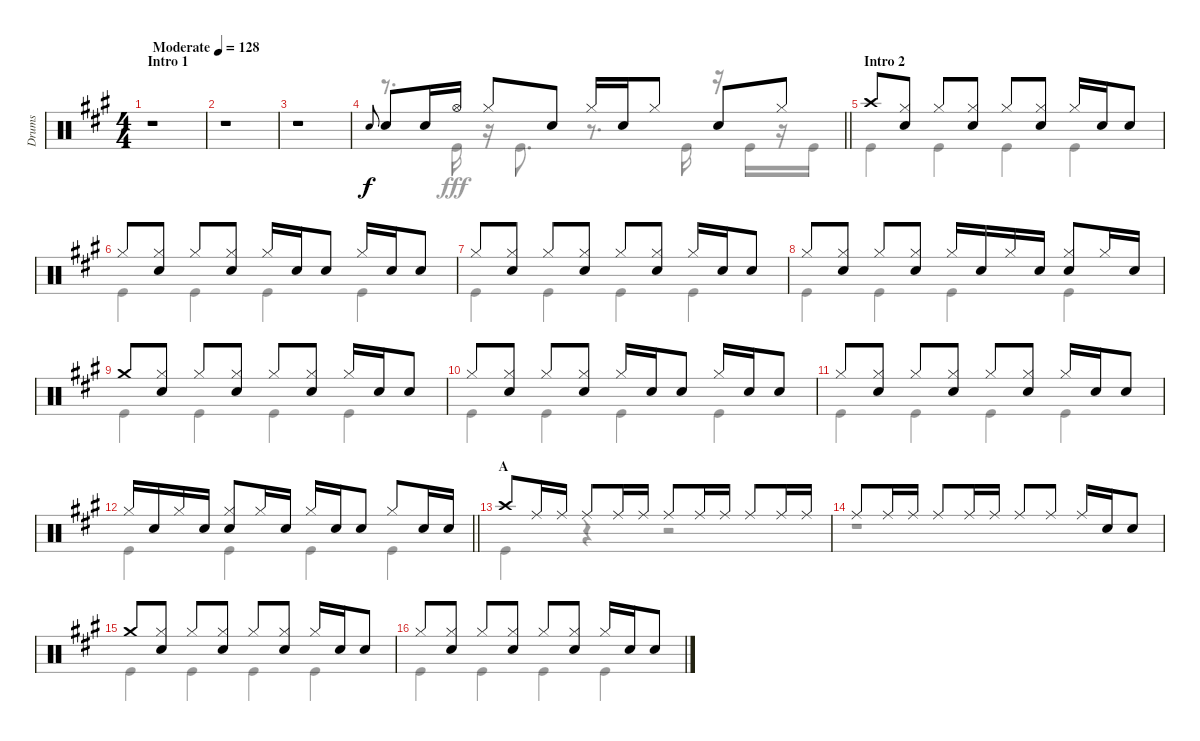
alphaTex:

\track ("Drums" "Drums") {instrument percussion}
\staff {score}
\articulation defaults
\voice
\ts (4 4)
\section ("" "Intro 1")
\tempo (128 "Moderate")
\clef neutral
\ks a
r.1{dy f} |
r.1 |
r.1 |
\barLineRight lightlight "Snare (hit) 2".8{gr onbeat} "Snare (hit) 2".8 "Snare (hit) 2".16 "Hi-Hat (open)".16 "Hi-Hat (closed)".8 "Snare (hit) 2".8 "Hi-Hat (closed)".16 "Snare (hit) 2".16 "Hi-Hat (closed)".8 "Snare (hit) 2".8 "Hi-Hat (closed)".8
|
\section ("" "Intro 2")
"Crash high (hit)".8 ("Hi-Hat (closed)" "Snare (hit) 2").8 "Hi-Hat (closed)".8 ("Hi-Hat (closed)" "Snare (hit) 2").8 "Hi-Hat (closed)".8 ("Hi-Hat (closed)" "Snare (hit) 2").8 "Hi-Hat (closed)".16 "Snare (hit) 2".16 "Snare (hit) 2".8 |
"Hi-Hat (closed)".8 ("Hi-Hat (closed)" "Snare (hit) 2").8 "Hi-Hat (closed)".8 ("Hi-Hat (closed)" "Snare (hit) 2").8 "Hi-Hat (closed)".16 "Snare (hit) 2".16 "Snare (hit) 2".8 "Hi-Hat (closed)".16 "Snare (hit) 2".16 "Snare (hit) 2".8 |
"Hi-Hat (closed)".8 ("Hi-Hat (closed)" "Snare (hit) 2").8 "Hi-Hat (closed)".8 ("Hi-Hat (closed)" "Snare (hit) 2").8 "Hi-Hat (closed)".8 ("Hi-Hat (closed)" "Snare (hit) 2").8 "Hi-Hat (closed)".16 "Snare (hit) 2".16 "Snare (hit) 2".8 |
"Hi-Hat (closed)".8 ("Hi-Hat (closed)" "Snare (hit) 2").8 "Hi-Hat (closed)".8 ("Hi-Hat (closed)" "Snare (hit) 2").8 "Hi-Hat (closed)".16 "Snare (hit) 2".16 "Hi-Hat (closed)".16 "Snare (hit) 2".16 ("Hi-Hat (closed)" "Snare (hit) 2").8 "Hi-Hat (closed)".16 "Snare (hit) 2".16 |
"Crash medium (hit)".8 ("Hi-Hat (closed)" "Snare (hit) 2").8 "Hi-Hat (closed)".8 ("Hi-Hat (closed)" "Snare (hit) 2").8 "Hi-Hat (closed)".8 ("Hi-Hat (closed)" "Snare (hit) 2").8 "Hi-Hat (closed)".16 "Snare (hit) 2".16 "Snare (hit) 2".8 |
"Hi-Hat (closed)".8 ("Hi-Hat (closed)" "Snare (hit) 2").8 "Hi-Hat (closed)".8 ("Hi-Hat (closed)" "Snare (hit) 2").8 "Hi-Hat (closed)".16 "Snare (hit) 2".16 "Snare (hit) 2".8 "Hi-Hat (closed)".16 "Snare (hit) 2".16 "Snare (hit) 2".8 |
"Hi-Hat (closed)".8 ("Hi-Hat (closed)" "Snare (hit) 2").8 "Hi-Hat (closed)".8 ("Hi-Hat (closed)" "Snare (hit) 2").8 "Hi-Hat (closed)".8 ("Hi-Hat (closed)" "Snare (hit) 2").8 "Hi-Hat (closed)".16 "Snare (hit) 2".16 "Snare (hit) 2".8 |
\barLineRight lightlight "Hi-Hat (closed)".16 "Snare (hit) 2".16 "Hi-Hat (closed)".16 "Snare (hit) 2".16
("Hi-Hat (closed)" "Snare (hit) 2").8 "Hi-Hat (closed)".16 "Snare (hit) 2".16 "Hi-Hat (closed)".16 "Snare (hit) 2".16 "Snare (hit) 2".8 "Hi-Hat (closed)".8 "Snare (hit) 2".16 "Snare (hit) 2".16 |
\section ("" "A")
"Crash high (hit)".8 "Ride (middle)".16 "Ride (middle)".16 "Ride (middle)".8 "Ride (middle)".16 "Ride (middle)".16 "Ride (middle)".8 "Ride (middle)".16 "Ride (middle)".16 "Ride (middle)".8 "Ride (middle)".16 "Ride (middle)".16 |
"Ride (middle)".8 "Ride (middle)".16 "Ride (middle)".16 "Ride (middle)".8 "Ride (middle)".16 "Ride (middle)".16 "Ride (middle)".8 "Ride (middle)".8 "Ride (middle)".16 "Snare (hit) 2".16 "Snare (hit) 2".8 |
"Crash medium (hit)".8 ("Hi-Hat (closed)" "Snare (hit) 2").8 "Hi-Hat (closed)".8 ("Hi-Hat (closed)" "Snare (hit) 2").8 "Hi-Hat (closed)".8 ("Hi-Hat (closed)" "Snare (hit) 2").8 "Hi-Hat (closed)".16 "Snare (hit) 2".16 "Snare (hit) 2".8 |
"Hi-Hat (closed)".8 ("Hi-Hat (closed)" "Snare (hit) 2").8 "Hi-Hat (closed)".8 ("Hi-Hat (closed)" "Snare (hit) 2").8 "Hi-Hat (closed)".8 ("Hi-Hat (closed)" "Snare (hit) 2").8 "Hi-Hat (closed)".16 "Snare (hit) 2".16 "Snare (hit) 2".8
\voice
\clef neutral
\ottava regular
\simile none
\ks a
r.1{dy fff} |
r.1 |
r.1 |
\barLineRight lightlight
r.8{d} "Kick (hit)".16 r.16 "Kick (hit)".8{d} r.8{d} "Kick (hit)".16 r.16 "Kick (hit)".16 r.16 "Kick (hit)".16 |
"Kick (hit)".4 "Kick (hit)".4 "Kick (hit)".4 "Kick (hit)".4 |
"Kick (hit)".4 "Kick (hit)".4 "Kick (hit)".4 "Kick (hit)".4 |
"Kick (hit)".4 "Kick (hit)".4 "Kick (hit)".4 "Kick (hit)".4 |
"Kick (hit)".4 "Kick (hit)".4 "Kick (hit)".4 "Kick (hit)".4 |
"Kick (hit)".4 "Kick (hit)".4 "Kick (hit)".4 "Kick (hit)".4 |
"Kick (hit)".4 "Kick (hit)".4 "Kick (hit)".4 "Kick (hit)".4 |
"Kick (hit)".4 "Kick (hit)".4 "Kick (hit)".4 "Kick (hit)".4 |
\barLineRight lightlight "Kick (hit)".4 "Kick (hit)".4 "Kick (hit)".4 "Kick (hit)".4
|
"Kick (hit)".4 r.4 r.2 |
r.1 |
"Kick (hit)".4 "Kick (hit)".4 "Kick (hit)".4 "Kick (hit)".4 |
"Kick (hit)".4 "Kick (hit)".4 "Kick (hit)".4 "Kick (hit)".4
